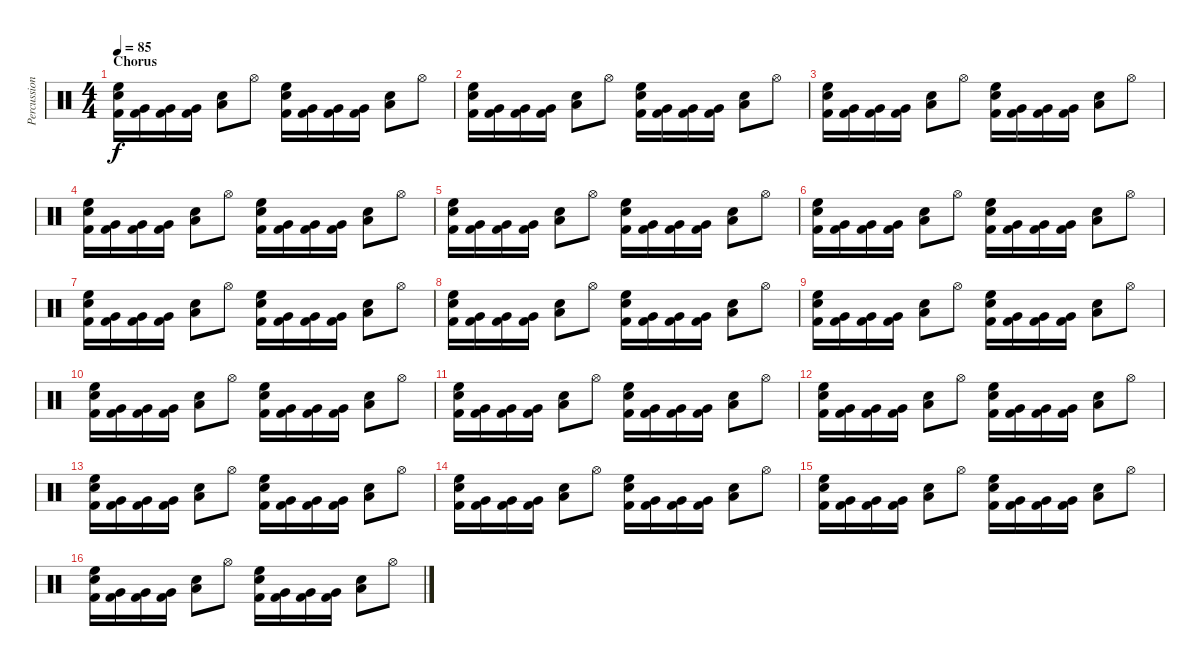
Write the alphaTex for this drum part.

\track ("Percussion . Jeremiah Green" "Percussion") {instrument percussion}
\staff {score}
\articulation defaults
\ts (4 4)
\section ("" "Chorus")
\tempo 85
\clef neutral
\ks c
("High Floor Tom (hit)" "Snare (hit) 2" "Kick (hit) 2").16{dy f} ("Very Low Tom (hit)" "Kick (hit) 2").16 ("Very Low Tom (hit)" "Kick (hit) 2").16 ("Very Low Tom (hit)" "Kick (hit) 2").16 ("Low Tom (hit)" "Electric Snare (hit)").8 "Hi-Hat (open)".8 ("High Floor Tom (hit)" "Snare (hit) 2" "Kick (hit) 2").16 ("Very Low Tom (hit)" "Kick (hit) 2").16 ("Very Low Tom (hit)" "Kick (hit) 2").16 ("Very Low Tom (hit)" "Kick (hit) 2").16 ("Low Tom (hit)" "Electric Snare (hit)").8 "Hi-Hat (open)".8 |
("High Floor Tom (hit)" "Snare (hit) 2" "Kick (hit) 2").16 ("Very Low Tom (hit)" "Kick (hit) 2").16 ("Very Low Tom (hit)" "Kick (hit) 2").16 ("Very Low Tom (hit)" "Kick (hit) 2").16 ("Low Tom (hit)" "Electric Snare (hit)").8 "Hi-Hat (open)".8 ("High Floor Tom (hit)" "Snare (hit) 2" "Kick (hit) 2").16 ("Very Low Tom (hit)" "Kick (hit) 2").16 ("Very Low Tom (hit)" "Kick (hit) 2").16 ("Very Low Tom (hit)" "Kick (hit) 2").16 ("Low Tom (hit)" "Electric Snare (hit)").8 "Hi-Hat (open)".8 |
("High Floor Tom (hit)" "Snare (hit) 2" "Kick (hit) 2").16 ("Very Low Tom (hit)" "Kick (hit) 2").16 ("Very Low Tom (hit)" "Kick (hit) 2").16 ("Very Low Tom (hit)" "Kick (hit) 2").16 ("Low Tom (hit)" "Electric Snare (hit)").8 "Hi-Hat (open)".8 ("High Floor Tom (hit)" "Snare (hit) 2" "Kick (hit) 2").16 ("Very Low Tom (hit)" "Kick (hit) 2").16 ("Very Low Tom (hit)" "Kick (hit) 2").16 ("Very Low Tom (hit)" "Kick (hit) 2").16 ("Low Tom (hit)" "Electric Snare (hit)").8 "Hi-Hat (open)".8 |
("High Floor Tom (hit)" "Snare (hit) 2" "Kick (hit) 2").16 ("Very Low Tom (hit)" "Kick (hit) 2").16 ("Very Low Tom (hit)" "Kick (hit) 2").16 ("Very Low Tom (hit)" "Kick (hit) 2").16 ("Low Tom (hit)" "Electric Snare (hit)").8 "Hi-Hat (open)".8 ("High Floor Tom (hit)" "Snare (hit) 2" "Kick (hit) 2").16 ("Very Low Tom (hit)" "Kick (hit) 2").16 ("Very Low Tom (hit)" "Kick (hit) 2").16 ("Very Low Tom (hit)" "Kick (hit) 2").16 ("Low Tom (hit)" "Electric Snare (hit)").8 "Hi-Hat (open)".8 |
("High Floor Tom (hit)" "Snare (hit) 2" "Kick (hit) 2").16 ("Very Low Tom (hit)" "Kick (hit) 2").16 ("Very Low Tom (hit)" "Kick (hit) 2").16 ("Very Low Tom (hit)" "Kick (hit) 2").16 ("Low Tom (hit)" "Electric Snare (hit)").8 "Hi-Hat (open)".8 ("High Floor Tom (hit)" "Snare (hit) 2" "Kick (hit) 2").16 ("Very Low Tom (hit)" "Kick (hit) 2").16 ("Very Low Tom (hit)" "Kick (hit) 2").16 ("Very Low Tom (hit)" "Kick (hit) 2").16 ("Low Tom (hit)" "Electric Snare (hit)").8 "Hi-Hat (open)".8 |
("High Floor Tom (hit)" "Snare (hit) 2" "Kick (hit) 2").16 ("Very Low Tom (hit)" "Kick (hit) 2").16 ("Very Low Tom (hit)" "Kick (hit) 2").16 ("Very Low Tom (hit)" "Kick (hit) 2").16 ("Low Tom (hit)" "Electric Snare (hit)").8 "Hi-Hat (open)".8 ("High Floor Tom (hit)" "Snare (hit) 2" "Kick (hit) 2").16 ("Very Low Tom (hit)" "Kick (hit) 2").16 ("Very Low Tom (hit)" "Kick (hit) 2").16 ("Very Low Tom (hit)" "Kick (hit) 2").16 ("Low Tom (hit)" "Electric Snare (hit)").8 "Hi-Hat (open)".8 |
("High Floor Tom (hit)" "Snare (hit) 2" "Kick (hit) 2").16 ("Very Low Tom (hit)" "Kick (hit) 2").16 ("Very Low Tom (hit)" "Kick (hit) 2").16 ("Very Low Tom (hit)" "Kick (hit) 2").16 ("Low Tom (hit)" "Electric Snare (hit)").8 "Hi-Hat (open)".8 ("High Floor Tom (hit)" "Snare (hit) 2" "Kick (hit) 2").16 ("Very Low Tom (hit)" "Kick (hit) 2").16 ("Very Low Tom (hit)" "Kick (hit) 2").16 ("Very Low Tom (hit)" "Kick (hit) 2").16 ("Low Tom (hit)" "Electric Snare (hit)").8 "Hi-Hat (open)".8 |
("High Floor Tom (hit)" "Snare (hit) 2" "Kick (hit) 2").16 ("Very Low Tom (hit)" "Kick (hit) 2").16 ("Very Low Tom (hit)" "Kick (hit) 2").16 ("Very Low Tom (hit)" "Kick (hit) 2").16 ("Low Tom (hit)" "Electric Snare (hit)").8 "Hi-Hat (open)".8 ("High Floor Tom (hit)" "Snare (hit) 2" "Kick (hit) 2").16 ("Very Low Tom (hit)" "Kick (hit) 2").16 ("Very Low Tom (hit)" "Kick (hit) 2").16 ("Very Low Tom (hit)" "Kick (hit) 2").16 ("Low Tom (hit)" "Electric Snare (hit)").8 "Hi-Hat (open)".8 |
("High Floor Tom (hit)" "Snare (hit) 2" "Kick (hit) 2").16 ("Very Low Tom (hit)" "Kick (hit) 2").16 ("Very Low Tom (hit)" "Kick (hit) 2").16 ("Very Low Tom (hit)" "Kick (hit) 2").16 ("Low Tom (hit)" "Electric Snare (hit)").8 "Hi-Hat (open)".8 ("High Floor Tom (hit)" "Snare (hit) 2" "Kick (hit) 2").16 ("Very Low Tom (hit)" "Kick (hit) 2").16 ("Very Low Tom (hit)" "Kick (hit) 2").16 ("Very Low Tom (hit)" "Kick (hit) 2").16 ("Low Tom (hit)" "Electric Snare (hit)").8 "Hi-Hat (open)".8 |
("High Floor Tom (hit)" "Snare (hit) 2" "Kick (hit) 2").16 ("Very Low Tom (hit)" "Kick (hit) 2").16 ("Very Low Tom (hit)" "Kick (hit) 2").16 ("Very Low Tom (hit)" "Kick (hit) 2").16 ("Low Tom (hit)" "Electric Snare (hit)").8 "Hi-Hat (open)".8 ("High Floor Tom (hit)" "Snare (hit) 2" "Kick (hit) 2").16 ("Very Low Tom (hit)" "Kick (hit) 2").16 ("Very Low Tom (hit)" "Kick (hit) 2").16 ("Very Low Tom (hit)" "Kick (hit) 2").16 ("Low Tom (hit)" "Electric Snare (hit)").8 "Hi-Hat (open)".8 |
("High Floor Tom (hit)" "Snare (hit) 2" "Kick (hit) 2").16 ("Very Low Tom (hit)" "Kick (hit) 2").16 ("Very Low Tom (hit)" "Kick (hit) 2").16 ("Very Low Tom (hit)" "Kick (hit) 2").16 ("Low Tom (hit)" "Electric Snare (hit)").8 "Hi-Hat (open)".8 ("High Floor Tom (hit)" "Snare (hit) 2" "Kick (hit) 2").16 ("Very Low Tom (hit)" "Kick (hit) 2").16 ("Very Low Tom (hit)" "Kick (hit) 2").16 ("Very Low Tom (hit)" "Kick (hit) 2").16 ("Low Tom (hit)" "Electric Snare (hit)").8 "Hi-Hat (open)".8 |
("High Floor Tom (hit)" "Snare (hit) 2" "Kick (hit) 2").16 ("Very Low Tom (hit)" "Kick (hit) 2").16 ("Very Low Tom (hit)" "Kick (hit) 2").16 ("Very Low Tom (hit)" "Kick (hit) 2").16 ("Low Tom (hit)" "Electric Snare (hit)").8 "Hi-Hat (open)".8 ("High Floor Tom (hit)" "Snare (hit) 2" "Kick (hit) 2").16 ("Very Low Tom (hit)" "Kick (hit) 2").16 ("Very Low Tom (hit)" "Kick (hit) 2").16 ("Very Low Tom (hit)" "Kick (hit) 2").16 ("Low Tom (hit)" "Electric Snare (hit)").8 "Hi-Hat (open)".8 |
("High Floor Tom (hit)" "Snare (hit) 2" "Kick (hit) 2").16 ("Very Low Tom (hit)" "Kick (hit) 2").16 ("Very Low Tom (hit)" "Kick (hit) 2").16 ("Very Low Tom (hit)" "Kick (hit) 2").16 ("Low Tom (hit)" "Electric Snare (hit)").8 "Hi-Hat (open)".8 ("High Floor Tom (hit)" "Snare (hit) 2" "Kick (hit) 2").16 ("Very Low Tom (hit)" "Kick (hit) 2").16 ("Very Low Tom (hit)" "Kick (hit) 2").16 ("Very Low Tom (hit)" "Kick (hit) 2").16 ("Low Tom (hit)" "Electric Snare (hit)").8 "Hi-Hat (open)".8 |
("High Floor Tom (hit)" "Snare (hit) 2" "Kick (hit) 2").16 ("Very Low Tom (hit)" "Kick (hit) 2").16 ("Very Low Tom (hit)" "Kick (hit) 2").16 ("Very Low Tom (hit)" "Kick (hit) 2").16 ("Low Tom (hit)" "Electric Snare (hit)").8 "Hi-Hat (open)".8 ("High Floor Tom (hit)" "Snare (hit) 2" "Kick (hit) 2").16 ("Very Low Tom (hit)" "Kick (hit) 2").16 ("Very Low Tom (hit)" "Kick (hit) 2").16 ("Very Low Tom (hit)" "Kick (hit) 2").16 ("Low Tom (hit)" "Electric Snare (hit)").8 "Hi-Hat (open)".8 |
("High Floor Tom (hit)" "Snare (hit) 2" "Kick (hit) 2").16 ("Very Low Tom (hit)" "Kick (hit) 2").16 ("Very Low Tom (hit)" "Kick (hit) 2").16 ("Very Low Tom (hit)" "Kick (hit) 2").16 ("Low Tom (hit)" "Electric Snare (hit)").8 "Hi-Hat (open)".8 ("High Floor Tom (hit)" "Snare (hit) 2" "Kick (hit) 2").16 ("Very Low Tom (hit)" "Kick (hit) 2").16 ("Very Low Tom (hit)" "Kick (hit) 2").16 ("Very Low Tom (hit)" "Kick (hit) 2").16 ("Low Tom (hit)" "Electric Snare (hit)").8 "Hi-Hat (open)".8 |
("High Floor Tom (hit)" "Snare (hit) 2" "Kick (hit) 2").16 ("Very Low Tom (hit)" "Kick (hit) 2").16 ("Very Low Tom (hit)" "Kick (hit) 2").16 ("Very Low Tom (hit)" "Kick (hit) 2").16 ("Low Tom (hit)" "Electric Snare (hit)").8 "Hi-Hat (open)".8 ("High Floor Tom (hit)" "Snare (hit) 2" "Kick (hit) 2").16 ("Very Low Tom (hit)" "Kick (hit) 2").16 ("Very Low Tom (hit)" "Kick (hit) 2").16 ("Very Low Tom (hit)" "Kick (hit) 2").16 ("Low Tom (hit)" "Electric Snare (hit)").8 "Hi-Hat (open)".8
